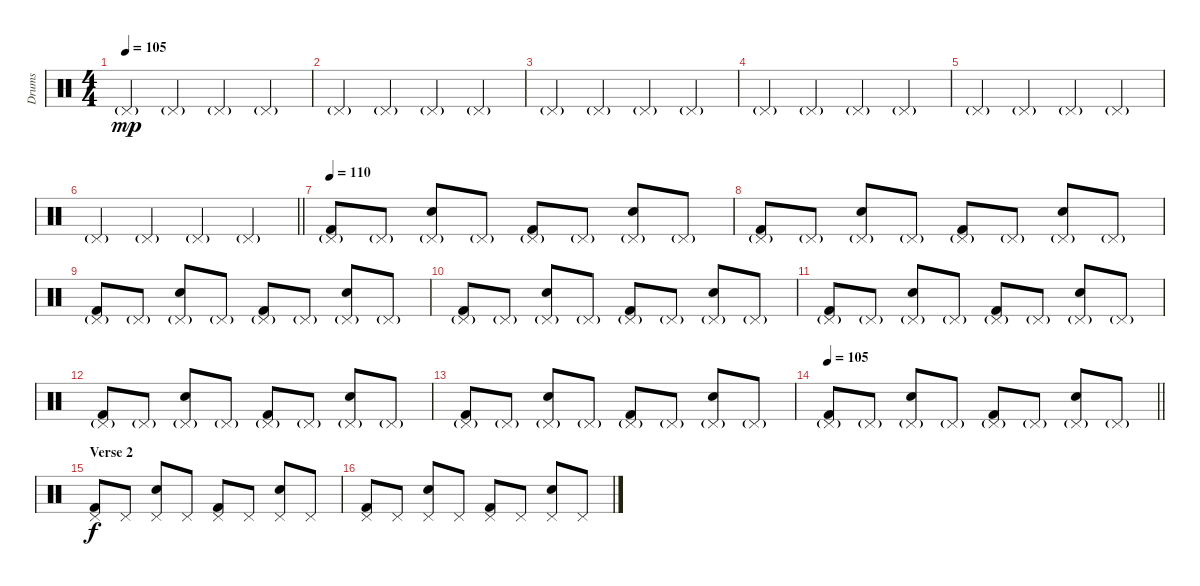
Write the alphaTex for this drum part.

\track ("Drums" "Drums") {instrument percussion}
\staff {score}
\articulation defaults
\ts (4 4)
\tempo 105
\clef neutral
\ks c "Pedal Hi-Hat (hit)"{g}.4{dy mp} "Pedal Hi-Hat (hit)"{g}.4 "Pedal Hi-Hat (hit)"{g}.4 "Pedal Hi-Hat (hit)"{g}.4
|
"Pedal Hi-Hat (hit)"{g}.4 "Pedal Hi-Hat (hit)"{g}.4 "Pedal Hi-Hat (hit)"{g}.4 "Pedal Hi-Hat (hit)"{g}.4 |
"Pedal Hi-Hat (hit)"{g}.4 "Pedal Hi-Hat (hit)"{g}.4 "Pedal Hi-Hat (hit)"{g}.4 "Pedal Hi-Hat (hit)"{g}.4 |
"Pedal Hi-Hat (hit)"{g}.4 "Pedal Hi-Hat (hit)"{g}.4 "Pedal Hi-Hat (hit)"{g}.4 "Pedal Hi-Hat (hit)"{g}.4 |
"Pedal Hi-Hat (hit)"{g}.4 "Pedal Hi-Hat (hit)"{g}.4 "Pedal Hi-Hat (hit)"{g}.4 "Pedal Hi-Hat (hit)"{g}.4 |
\barLineRight lightlight "Pedal Hi-Hat (hit)"{g}.4 "Pedal Hi-Hat (hit)"{g}.4 "Pedal Hi-Hat (hit)"{g}.4 "Pedal Hi-Hat (hit)"{g}.4
|
\tempo 110
("Pedal Hi-Hat (hit)"{g} "Kick (hit) 2").8 "Pedal Hi-Hat (hit)"{g}.8 ("Pedal Hi-Hat (hit)"{g} "Snare (hit) 2").8 "Pedal Hi-Hat (hit)"{g}.8 ("Pedal Hi-Hat (hit)"{g} "Kick (hit) 2").8 "Pedal Hi-Hat (hit)"{g}.8 ("Pedal Hi-Hat (hit)"{g} "Snare (hit) 2").8 "Pedal Hi-Hat (hit)"{g}.8 |
("Pedal Hi-Hat (hit)"{g} "Kick (hit) 2").8 "Pedal Hi-Hat (hit)"{g}.8 ("Pedal Hi-Hat (hit)"{g} "Snare (hit) 2").8 "Pedal Hi-Hat (hit)"{g}.8 ("Pedal Hi-Hat (hit)"{g} "Kick (hit) 2").8 "Pedal Hi-Hat (hit)"{g}.8 ("Pedal Hi-Hat (hit)"{g} "Snare (hit) 2").8 "Pedal Hi-Hat (hit)"{g}.8 |
("Pedal Hi-Hat (hit)"{g} "Kick (hit) 2").8 "Pedal Hi-Hat (hit)"{g}.8 ("Pedal Hi-Hat (hit)"{g} "Snare (hit) 2").8 "Pedal Hi-Hat (hit)"{g}.8 ("Pedal Hi-Hat (hit)"{g} "Kick (hit) 2").8 "Pedal Hi-Hat (hit)"{g}.8 ("Pedal Hi-Hat (hit)"{g} "Snare (hit) 2").8 "Pedal Hi-Hat (hit)"{g}.8 |
("Pedal Hi-Hat (hit)"{g} "Kick (hit) 2").8 "Pedal Hi-Hat (hit)"{g}.8 ("Pedal Hi-Hat (hit)"{g} "Snare (hit) 2").8 "Pedal Hi-Hat (hit)"{g}.8 ("Pedal Hi-Hat (hit)"{g} "Kick (hit) 2").8 "Pedal Hi-Hat (hit)"{g}.8 ("Pedal Hi-Hat (hit)"{g} "Snare (hit) 2").8 "Pedal Hi-Hat (hit)"{g}.8 |
("Pedal Hi-Hat (hit)"{g} "Kick (hit) 2").8 "Pedal Hi-Hat (hit)"{g}.8 ("Pedal Hi-Hat (hit)"{g} "Snare (hit) 2").8 "Pedal Hi-Hat (hit)"{g}.8 ("Pedal Hi-Hat (hit)"{g} "Kick (hit) 2").8 "Pedal Hi-Hat (hit)"{g}.8 ("Pedal Hi-Hat (hit)"{g} "Snare (hit) 2").8 "Pedal Hi-Hat (hit)"{g}.8 |
("Pedal Hi-Hat (hit)"{g} "Kick (hit) 2").8 "Pedal Hi-Hat (hit)"{g}.8 ("Pedal Hi-Hat (hit)"{g} "Snare (hit) 2").8 "Pedal Hi-Hat (hit)"{g}.8 ("Pedal Hi-Hat (hit)"{g} "Kick (hit) 2").8 "Pedal Hi-Hat (hit)"{g}.8 ("Pedal Hi-Hat (hit)"{g} "Snare (hit) 2").8 "Pedal Hi-Hat (hit)"{g}.8 |
("Pedal Hi-Hat (hit)"{g} "Kick (hit) 2").8 "Pedal Hi-Hat (hit)"{g}.8 ("Pedal Hi-Hat (hit)"{g} "Snare (hit) 2").8 "Pedal Hi-Hat (hit)"{g}.8 ("Pedal Hi-Hat (hit)"{g} "Kick (hit) 2").8 "Pedal Hi-Hat (hit)"{g}.8 ("Pedal Hi-Hat (hit)"{g} "Snare (hit) 2").8 "Pedal Hi-Hat (hit)"{g}.8 |
\tempo 105
\barLineRight lightlight
("Pedal Hi-Hat (hit)"{g} "Kick (hit) 2").8 "Pedal Hi-Hat (hit)"{g}.8 ("Pedal Hi-Hat (hit)"{g} "Snare (hit) 2").8 "Pedal Hi-Hat (hit)"{g}.8 ("Pedal Hi-Hat (hit)"{g} "Kick (hit) 2").8 "Pedal Hi-Hat (hit)"{g}.8 ("Pedal Hi-Hat (hit)"{g} "Snare (hit) 2").8 "Pedal Hi-Hat (hit)"{g}.8 |
\section ("" "Verse 2")
("Pedal Hi-Hat (hit)" "Kick (hit) 2").8{dy f} "Pedal Hi-Hat (hit)".8 ("Pedal Hi-Hat (hit)" "Snare (hit) 2").8 "Pedal Hi-Hat (hit)".8 ("Pedal Hi-Hat (hit)" "Kick (hit) 2").8 "Pedal Hi-Hat (hit)".8 ("Pedal Hi-Hat (hit)" "Snare (hit) 2").8 "Pedal Hi-Hat (hit)".8 |
("Pedal Hi-Hat (hit)" "Kick (hit) 2").8 "Pedal Hi-Hat (hit)".8 ("Pedal Hi-Hat (hit)" "Snare (hit) 2").8 "Pedal Hi-Hat (hit)".8 ("Pedal Hi-Hat (hit)" "Kick (hit) 2").8 "Pedal Hi-Hat (hit)".8 ("Pedal Hi-Hat (hit)" "Snare (hit) 2").8 "Pedal Hi-Hat (hit)".8
